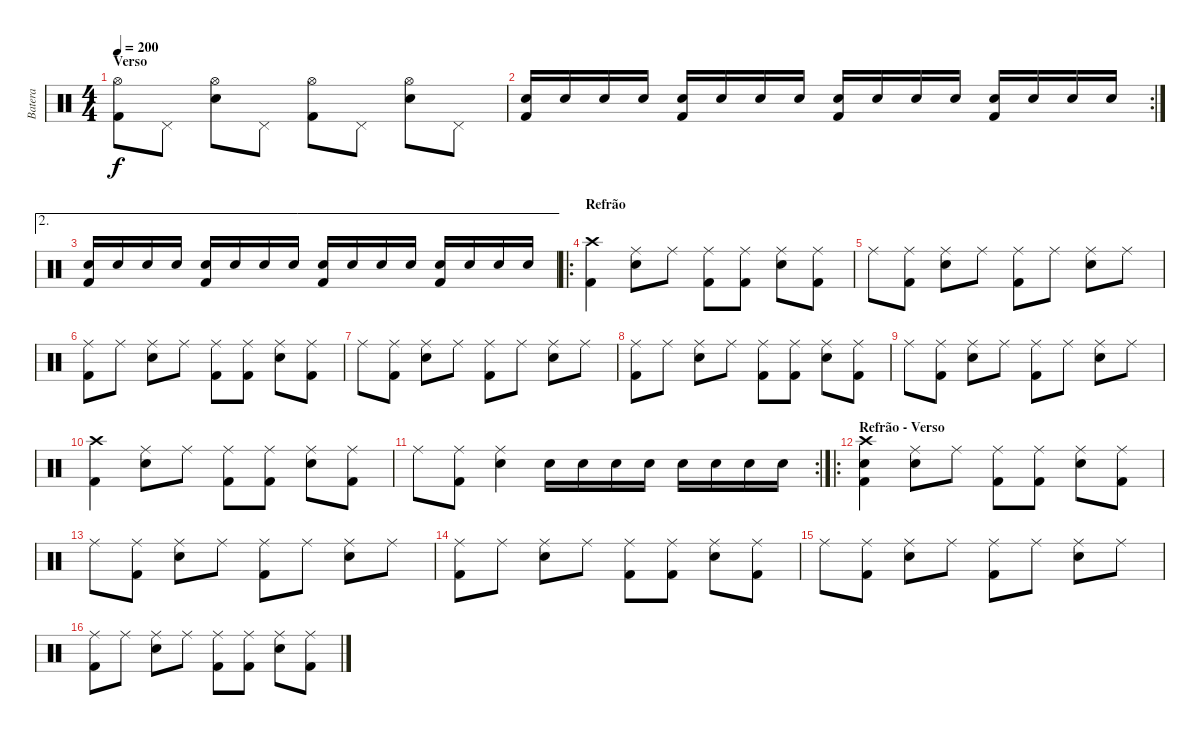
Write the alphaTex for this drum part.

\track ("Batera" "Batera") {instrument percussion}
\staff {score}
\articulation defaults
\ts (4 4)
\section ("" "Verso")
\tempo 200
\clef neutral
\ks c
("Hi-Hat (open)" "Kick (hit) 2").8{dy f} "Pedal Hi-Hat (hit)".8 ("Hi-Hat (open)" "Electric Snare (hit)").8 "Pedal Hi-Hat (hit)".8 ("Hi-Hat (open)" "Kick (hit) 2").8 "Pedal Hi-Hat (hit)".8 ("Hi-Hat (open)" "Electric Snare (hit)").8 "Pedal Hi-Hat (hit)".8 |
\rc 2
("Electric Snare (hit)" "Kick (hit) 2").16 "Electric Snare (hit)".16 "Electric Snare (hit)".16 "Electric Snare (hit)".16 ("Electric Snare (hit)" "Kick (hit) 2").16 "Electric Snare (hit)".16 "Electric Snare (hit)".16 "Electric Snare (hit)".16 ("Electric Snare (hit)" "Kick (hit) 2").16 "Electric Snare (hit)".16 "Electric Snare (hit)".16 "Electric Snare (hit)".16 ("Electric Snare (hit)" "Kick (hit) 2").16 "Electric Snare (hit)".16 "Electric Snare (hit)".16 "Electric Snare (hit)".16 |
\ae 2
("Electric Snare (hit)" "Kick (hit) 2").16 "Electric Snare (hit)".16 "Electric Snare (hit)".16 "Electric Snare (hit)".16 ("Electric Snare (hit)" "Kick (hit) 2").16 "Electric Snare (hit)".16 "Electric Snare (hit)".16 "Electric Snare (hit)".16 ("Electric Snare (hit)" "Kick (hit) 2").16 "Electric Snare (hit)".16 "Electric Snare (hit)".16 "Electric Snare (hit)".16 ("Electric Snare (hit)" "Kick (hit) 2").16 "Electric Snare (hit)".16 "Electric Snare (hit)".16 "Electric Snare (hit)".16 |
\ro
\section ("" "Refrão")
("Crash high (hit)" "Kick (hit) 2").4 ("Ride (middle)" "Electric Snare (hit)").8 "Ride (middle)".8 ("Ride (middle)" "Kick (hit) 2").8 ("Ride (middle)" "Kick (hit) 2").8 ("Ride (middle)" "Electric Snare (hit)").8 ("Ride (middle)" "Kick (hit) 2").8 |
"Ride (middle)".8 ("Ride (middle)" "Kick (hit) 2").8 ("Ride (middle)" "Electric Snare (hit)").8 "Ride (middle)".8 ("Ride (middle)" "Kick (hit) 2").8 "Ride (middle)".8 ("Ride (middle)" "Electric Snare (hit)").8 "Ride (middle)".8 |
("Ride (middle)" "Kick (hit) 2").8 "Ride (middle)".8 ("Ride (middle)" "Electric Snare (hit)").8 "Ride (middle)".8 ("Ride (middle)" "Kick (hit) 2").8 ("Ride (middle)" "Kick (hit) 2").8 ("Ride (middle)" "Electric Snare (hit)").8 ("Ride (middle)" "Kick (hit) 2").8 |
"Ride (middle)".8 ("Ride (middle)" "Kick (hit) 2").8 ("Ride (middle)" "Electric Snare (hit)").8 "Ride (middle)".8 ("Ride (middle)" "Kick (hit) 2").8 "Ride (middle)".8 ("Ride (middle)" "Electric Snare (hit)").8 "Ride (middle)".8 |
("Ride (middle)" "Kick (hit) 2").8 "Ride (middle)".8 ("Ride (middle)" "Electric Snare (hit)").8 "Ride (middle)".8 ("Ride (middle)" "Kick (hit) 2").8 ("Ride (middle)" "Kick (hit) 2").8 ("Ride (middle)" "Electric Snare (hit)").8 ("Ride (middle)" "Kick (hit) 2").8 |
"Ride (middle)".8 ("Ride (middle)" "Kick (hit) 2").8 ("Ride (middle)" "Electric Snare (hit)").8 "Ride (middle)".8 ("Ride (middle)" "Kick (hit) 2").8 "Ride (middle)".8 ("Ride (middle)" "Electric Snare (hit)").8 "Ride (middle)".8 |
("Crash high (hit)" "Kick (hit) 2").4 ("Ride (middle)" "Electric Snare (hit)").8 "Ride (middle)".8 ("Ride (middle)" "Kick (hit) 2").8 ("Ride (middle)" "Kick (hit) 2").8 ("Ride (middle)" "Electric Snare (hit)").8 ("Ride (middle)" "Kick (hit) 2").8 |
\rc 2 "Ride (middle)".8
("Ride (middle)" "Kick (hit) 2").8 ("Ride (middle)" "Electric Snare (hit)").4 "Electric Snare (hit)".16 "Electric Snare (hit)".16 "Electric Snare (hit)".16 "Electric Snare (hit)".16 "Electric Snare (hit)".16 "Electric Snare (hit)".16 "Electric Snare (hit)".16 "Electric Snare (hit)".16 |
\ro
\section ("" "Refrão - Verso")
("Crash high (hit)" "Electric Snare (hit)" "Kick (hit) 2").4 ("Ride (middle)" "Electric Snare (hit)").8 "Ride (middle)".8 ("Ride (middle)" "Kick (hit) 2").8 ("Ride (middle)" "Kick (hit) 2").8 ("Ride (middle)" "Electric Snare (hit)").8 ("Ride (middle)" "Kick (hit) 2").8 |
"Ride (middle)".8 ("Ride (middle)" "Kick (hit) 2").8 ("Ride (middle)" "Electric Snare (hit)").8 "Ride (middle)".8 ("Ride (middle)" "Kick (hit) 2").8 "Ride (middle)".8 ("Ride (middle)" "Electric Snare (hit)").8 "Ride (middle)".8 |
("Ride (middle)" "Kick (hit) 2").8 "Ride (middle)".8 ("Ride (middle)" "Electric Snare (hit)").8 "Ride (middle)".8 ("Ride (middle)" "Kick (hit) 2").8 ("Ride (middle)" "Kick (hit) 2").8 ("Ride (middle)" "Electric Snare (hit)").8 ("Ride (middle)" "Kick (hit) 2").8 |
"Ride (middle)".8 ("Ride (middle)" "Kick (hit) 2").8 ("Ride (middle)" "Electric Snare (hit)").8 "Ride (middle)".8 ("Ride (middle)" "Kick (hit) 2").8 "Ride (middle)".8 ("Ride (middle)" "Electric Snare (hit)").8 "Ride (middle)".8 |
("Ride (middle)" "Kick (hit) 2").8 "Ride (middle)".8 ("Ride (middle)" "Electric Snare (hit)").8 "Ride (middle)".8 ("Ride (middle)" "Kick (hit) 2").8 ("Ride (middle)" "Kick (hit) 2").8 ("Ride (middle)" "Electric Snare (hit)").8 ("Ride (middle)" "Kick (hit) 2").8
